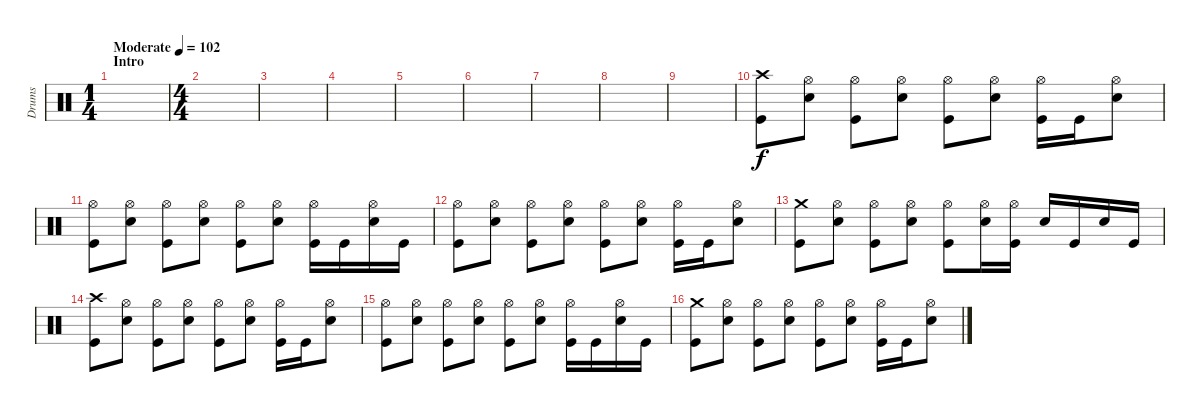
\track ("Drums" "Drums") {instrument percussion}
\staff {score}
\articulation defaults
\ts (1 4)
\section ("" "Intro")
\tempo (102 "Moderate")
\clef neutral
\ks c
|
\ts (4 4)
|
|
|
|
|
|
|
|
("Crash high (hit)" "Kick (hit)").8 ("Hi-Hat (open)" "Snare (hit) 2").8 ("Hi-Hat (open)" "Kick (hit)").8 ("Hi-Hat (open)" "Snare (hit) 2").8 ("Hi-Hat (open)" "Kick (hit)").8 ("Hi-Hat (open)" "Snare (hit) 2").8 ("Hi-Hat (open)" "Kick (hit)").16 "Kick (hit)".16 ("Hi-Hat (open)" "Snare (hit) 2").8 |
("Hi-Hat (open)" "Kick (hit)").8 ("Hi-Hat (open)" "Snare (hit) 2").8 ("Hi-Hat (open)" "Kick (hit)").8 ("Hi-Hat (open)" "Snare (hit) 2").8 ("Hi-Hat (open)" "Kick (hit)").8 ("Hi-Hat (open)" "Snare (hit) 2").8 ("Hi-Hat (open)" "Kick (hit)").16 "Kick (hit)".16 ("Hi-Hat (open)" "Snare (hit) 2").16 "Kick (hit)".16 |
("Hi-Hat (open)" "Kick (hit)").8 ("Hi-Hat (open)" "Snare (hit) 2").8 ("Hi-Hat (open)" "Kick (hit)").8 ("Hi-Hat (open)" "Snare (hit) 2").8 ("Hi-Hat (open)" "Kick (hit)").8 ("Hi-Hat (open)" "Snare (hit) 2").8 ("Hi-Hat (open)" "Kick (hit)").16 "Kick (hit)".16 ("Hi-Hat (open)" "Snare (hit) 2").8 |
("Crash medium (hit)" "Kick (hit)").8 ("Hi-Hat (open)" "Snare (hit) 2").8 ("Hi-Hat (open)" "Kick (hit)").8 ("Hi-Hat (open)" "Snare (hit) 2").8 ("Hi-Hat (open)" "Kick (hit)").8 ("Hi-Hat (open)" "Snare (hit) 2").16 ("Hi-Hat (open)" "Kick (hit)").16 "Snare (hit) 2".16 "Kick (hit)".16 "Snare (hit) 2".16 "Kick (hit)".16 |
("Crash high (hit)" "Kick (hit)").8 ("Hi-Hat (open)" "Snare (hit) 2").8 ("Hi-Hat (open)" "Kick (hit)").8 ("Hi-Hat (open)" "Snare (hit) 2").8 ("Hi-Hat (open)" "Kick (hit)").8 ("Hi-Hat (open)" "Snare (hit) 2").8 ("Hi-Hat (open)" "Kick (hit)").16 "Kick (hit)".16 ("Hi-Hat (open)" "Snare (hit) 2").8 |
("Hi-Hat (open)" "Kick (hit)").8 ("Hi-Hat (open)" "Snare (hit) 2").8 ("Hi-Hat (open)" "Kick (hit)").8 ("Hi-Hat (open)" "Snare (hit) 2").8 ("Hi-Hat (open)" "Kick (hit)").8 ("Hi-Hat (open)" "Snare (hit) 2").8 ("Hi-Hat (open)" "Kick (hit)").16 "Kick (hit)".16 ("Hi-Hat (open)" "Snare (hit) 2").16 "Kick (hit)".16 |
("Crash medium (hit)" "Kick (hit)").8 ("Hi-Hat (open)" "Snare (hit) 2").8 ("Hi-Hat (open)" "Kick (hit)").8 ("Hi-Hat (open)" "Snare (hit) 2").8 ("Hi-Hat (open)" "Kick (hit)").8 ("Hi-Hat (open)" "Snare (hit) 2").8 ("Hi-Hat (open)" "Kick (hit)").16 "Kick (hit)".16 ("Hi-Hat (open)" "Snare (hit) 2").8
